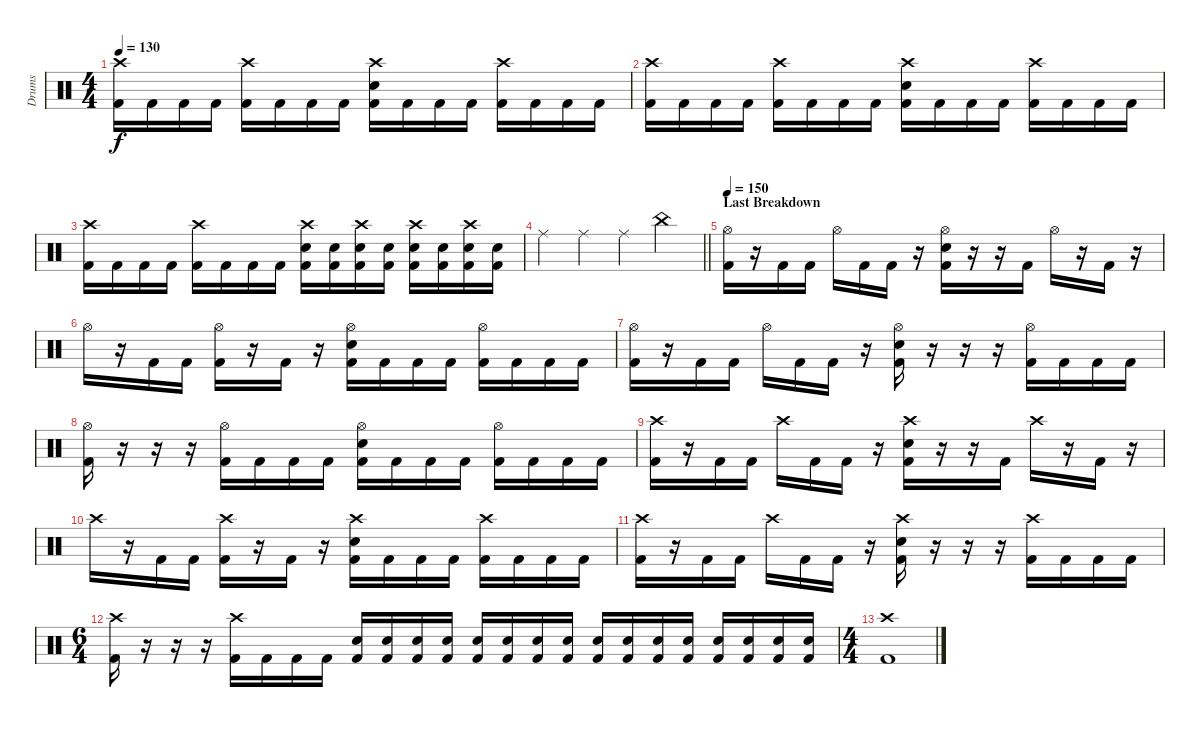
\track ("Drums" "Drums") {instrument percussion}
\staff {score}
\articulation defaults
\ts (4 4)
\tempo 130
\clef neutral
\ks c
("Crash high (hit)" "Kick (hit) 2").16{dy f} "Kick (hit) 2".16 "Kick (hit) 2".16 "Kick (hit) 2".16 ("Crash high (hit)" "Kick (hit) 2").16 "Kick (hit) 2".16 "Kick (hit) 2".16 "Kick (hit) 2".16 ("Crash high (hit)" "Electric Snare (hit)" "Kick (hit) 2").16 "Kick (hit) 2".16 "Kick (hit) 2".16 "Kick (hit) 2".16 ("Crash high (hit)" "Kick (hit) 2").16 "Kick (hit) 2".16 "Kick (hit) 2".16 "Kick (hit) 2".16 |
("Crash high (hit)" "Kick (hit) 2").16 "Kick (hit) 2".16 "Kick (hit) 2".16 "Kick (hit) 2".16 ("Crash high (hit)" "Kick (hit) 2").16 "Kick (hit) 2".16 "Kick (hit) 2".16 "Kick (hit) 2".16 ("Crash high (hit)" "Electric Snare (hit)" "Kick (hit) 2").16 "Kick (hit) 2".16 "Kick (hit) 2".16 "Kick (hit) 2".16 ("Crash high (hit)" "Kick (hit) 2").16 "Kick (hit) 2".16 "Kick (hit) 2".16 "Kick (hit) 2".16 |
("Crash high (hit)" "Kick (hit) 2").16 "Kick (hit) 2".16 "Kick (hit) 2".16 "Kick (hit) 2".16 ("Crash high (hit)" "Kick (hit) 2").16 "Kick (hit) 2".16 "Kick (hit) 2".16 "Kick (hit) 2".16 ("Crash high (hit)" "Electric Snare (hit)" "Kick (hit) 2").16 ("Electric Snare (hit)" "Kick (hit) 2").16 ("Crash high (hit)" "Electric Snare (hit)" "Kick (hit) 2").16 ("Electric Snare (hit)" "Kick (hit) 2").16 ("Crash high (hit)" "Electric Snare (hit)" "Kick (hit) 2").16 ("Electric Snare (hit)" "Kick (hit) 2").16 ("Crash high (hit)" "Electric Snare (hit)" "Kick (hit) 2").16 ("Electric Snare (hit)" "Kick (hit) 2").16 |
\barLineRight lightlight "Ride (middle)".4 "Ride (middle)".4 "Ride (middle)".4 "China (hit)".4
|
\section ("" "Last Breakdown")
\tempo 150
("Hi-Hat (open)" "Kick (hit) 2").16 r.16 "Kick (hit) 2".16 "Kick (hit) 2".16 "Hi-Hat (open)".16 "Kick (hit) 2".16 "Kick (hit) 2".16 r.16 ("Hi-Hat (open)" "Electric Snare (hit)" "Kick (hit) 2").16 r.16 r.16 "Kick (hit) 2".16 "Hi-Hat (open)".16 r.16 "Kick (hit) 2".16 r.16 |
"Hi-Hat (open)".16 r.16 "Kick (hit) 2".16 "Kick (hit) 2".16 ("Hi-Hat (open)" "Kick (hit) 2").16 r.16 "Kick (hit) 2".16 r.16 ("Hi-Hat (open)" "Electric Snare (hit)" "Kick (hit) 2").16 "Kick (hit) 2".16 "Kick (hit) 2".16 "Kick (hit) 2".16 ("Hi-Hat (open)" "Kick (hit) 2").16 "Kick (hit) 2".16 "Kick (hit) 2".16 "Kick (hit) 2".16 |
("Hi-Hat (open)" "Kick (hit) 2").16 r.16 "Kick (hit) 2".16 "Kick (hit) 2".16 "Hi-Hat (open)".16 "Kick (hit) 2".16 "Kick (hit) 2".16 r.16 ("Hi-Hat (open)" "Electric Snare (hit)" "Kick (hit) 2").16 r.16 r.16 r.16 ("Hi-Hat (open)" "Kick (hit) 2").16 "Kick (hit) 2".16 "Kick (hit) 2".16 "Kick (hit) 2".16 |
("Hi-Hat (open)" "Kick (hit) 2").16 r.16 r.16 r.16 ("Hi-Hat (open)" "Kick (hit) 2").16 "Kick (hit) 2".16 "Kick (hit) 2".16 "Kick (hit) 2".16 ("Hi-Hat (open)" "Electric Snare (hit)" "Kick (hit) 2").16 "Kick (hit) 2".16 "Kick (hit) 2".16 "Kick (hit) 2".16 ("Hi-Hat (open)" "Kick (hit) 2").16 "Kick (hit) 2".16 "Kick (hit) 2".16 "Kick (hit) 2".16 |
("Crash high (hit)" "Kick (hit) 2").16 r.16 "Kick (hit) 2".16 "Kick (hit) 2".16 "Crash high (hit)".16 "Kick (hit) 2".16 "Kick (hit) 2".16 r.16 ("Crash high (hit)" "Electric Snare (hit)" "Kick (hit) 2").16 r.16 r.16 "Kick (hit) 2".16 "Crash high (hit)".16 r.16 "Kick (hit) 2".16 r.16 |
"Crash high (hit)".16 r.16 "Kick (hit) 2".16 "Kick (hit) 2".16 ("Crash high (hit)" "Kick (hit) 2").16 r.16 "Kick (hit) 2".16 r.16 ("Crash high (hit)" "Electric Snare (hit)" "Kick (hit) 2").16 "Kick (hit) 2".16 "Kick (hit) 2".16 "Kick (hit) 2".16 ("Crash high (hit)" "Kick (hit) 2").16 "Kick (hit) 2".16 "Kick (hit) 2".16 "Kick (hit) 2".16 |
("Crash high (hit)" "Kick (hit) 2").16 r.16 "Kick (hit) 2".16 "Kick (hit) 2".16 "Crash high (hit)".16 "Kick (hit) 2".16 "Kick (hit) 2".16 r.16 ("Crash high (hit)" "Electric Snare (hit)" "Kick (hit) 2").16 r.16 r.16 r.16 ("Crash high (hit)" "Kick (hit) 2").16 "Kick (hit) 2".16 "Kick (hit) 2".16 "Kick (hit) 2".16 |
\ts (6 4)
("Crash high (hit)" "Kick (hit) 2").16 r.16 r.16 r.16 ("Crash high (hit)" "Kick (hit) 2").16 "Kick (hit) 2".16 "Kick (hit) 2".16 "Kick (hit) 2".16 ("Electric Snare (hit)" "Kick (hit) 2").16 ("Electric Snare (hit)" "Kick (hit) 2").16 ("Electric Snare (hit)" "Kick (hit) 2").16 ("Electric Snare (hit)" "Kick (hit) 2").16 ("Electric Snare (hit)" "Kick (hit) 2").16 ("Electric Snare (hit)" "Kick (hit) 2").16 ("Electric Snare (hit)" "Kick (hit) 2").16 ("Electric Snare (hit)" "Kick (hit) 2").16 ("Electric Snare (hit)" "Kick (hit) 2").16 ("Electric Snare (hit)" "Kick (hit) 2").16 ("Electric Snare (hit)" "Kick (hit) 2").16 ("Electric Snare (hit)" "Kick (hit) 2").16 ("Electric Snare (hit)" "Kick (hit) 2").16 ("Electric Snare (hit)" "Kick (hit) 2").16 ("Electric Snare (hit)" "Kick (hit) 2").16 ("Electric Snare (hit)" "Kick (hit) 2").16 |
\ts (4 4)
("Crash high (hit)" "Kick (hit) 2").1
